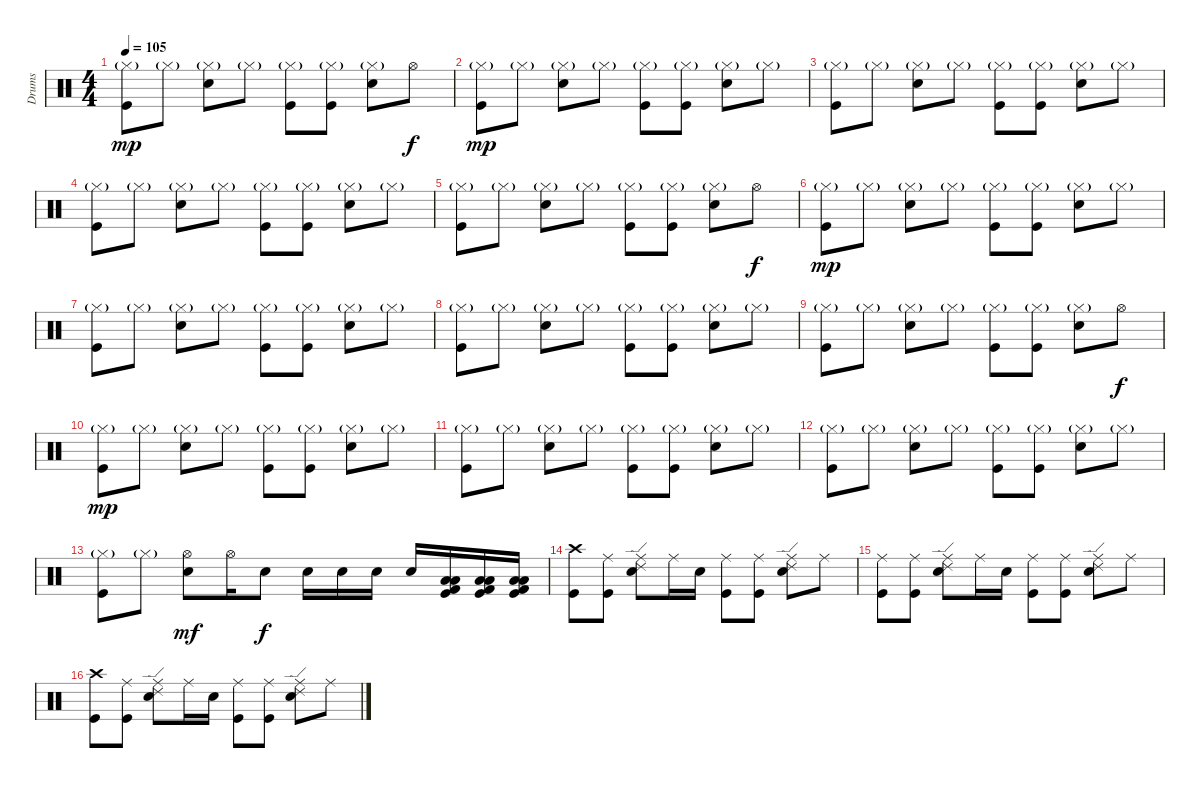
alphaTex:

\track ("Drums" "Drums") {instrument percussion}
\staff {score}
\articulation defaults
\ts (4 4)
\tempo 105
\clef neutral
\ks c
("Hi-Hat (closed)"{g} "Kick (hit)").8{dy mp} "Hi-Hat (closed)"{g}.8 ("Hi-Hat (closed)"{g} "Snare (hit) 2").8 "Hi-Hat (closed)"{g}.8 ("Hi-Hat (closed)"{g} "Kick (hit)").8 ("Hi-Hat (closed)"{g} "Kick (hit)").8 ("Hi-Hat (closed)"{g} "Snare (hit) 2").8 "Hi-Hat (open)".8{dy f} |
("Hi-Hat (closed)"{g} "Kick (hit)").8{dy mp} "Hi-Hat (closed)"{g}.8 ("Hi-Hat (closed)"{g} "Snare (hit) 2").8 "Hi-Hat (closed)"{g}.8 ("Hi-Hat (closed)"{g} "Kick (hit)").8 ("Hi-Hat (closed)"{g} "Kick (hit)").8 ("Hi-Hat (closed)"{g} "Snare (hit) 2").8 "Hi-Hat (closed)"{g}.8 |
("Hi-Hat (closed)"{g} "Kick (hit)").8 "Hi-Hat (closed)"{g}.8 ("Hi-Hat (closed)"{g} "Snare (hit) 2").8 "Hi-Hat (closed)"{g}.8 ("Hi-Hat (closed)"{g} "Kick (hit)").8 ("Hi-Hat (closed)"{g} "Kick (hit)").8 ("Hi-Hat (closed)"{g} "Snare (hit) 2").8 "Hi-Hat (closed)"{g}.8 |
("Hi-Hat (closed)"{g} "Kick (hit)").8 "Hi-Hat (closed)"{g}.8 ("Hi-Hat (closed)"{g} "Snare (hit) 2").8 "Hi-Hat (closed)"{g}.8 ("Hi-Hat (closed)"{g} "Kick (hit)").8 ("Hi-Hat (closed)"{g} "Kick (hit)").8 ("Hi-Hat (closed)"{g} "Snare (hit) 2").8 "Hi-Hat (closed)"{g}.8 |
("Hi-Hat (closed)"{g} "Kick (hit)").8 "Hi-Hat (closed)"{g}.8 ("Hi-Hat (closed)"{g} "Snare (hit) 2").8 "Hi-Hat (closed)"{g}.8 ("Hi-Hat (closed)"{g} "Kick (hit)").8 ("Hi-Hat (closed)"{g} "Kick (hit)").8 ("Hi-Hat (closed)"{g} "Snare (hit) 2").8 "Hi-Hat (open)".8{dy f} |
("Hi-Hat (closed)"{g} "Kick (hit)").8{dy mp} "Hi-Hat (closed)"{g}.8 ("Hi-Hat (closed)"{g} "Snare (hit) 2").8 "Hi-Hat (closed)"{g}.8 ("Hi-Hat (closed)"{g} "Kick (hit)").8 ("Hi-Hat (closed)"{g} "Kick (hit)").8 ("Hi-Hat (closed)"{g} "Snare (hit) 2").8 "Hi-Hat (closed)"{g}.8 |
("Hi-Hat (closed)"{g} "Kick (hit)").8 "Hi-Hat (closed)"{g}.8 ("Hi-Hat (closed)"{g} "Snare (hit) 2").8 "Hi-Hat (closed)"{g}.8 ("Hi-Hat (closed)"{g} "Kick (hit)").8 ("Hi-Hat (closed)"{g} "Kick (hit)").8 ("Hi-Hat (closed)"{g} "Snare (hit) 2").8 "Hi-Hat (closed)"{g}.8 |
("Hi-Hat (closed)"{g} "Kick (hit)").8 "Hi-Hat (closed)"{g}.8 ("Hi-Hat (closed)"{g} "Snare (hit) 2").8 "Hi-Hat (closed)"{g}.8 ("Hi-Hat (closed)"{g} "Kick (hit)").8 ("Hi-Hat (closed)"{g} "Kick (hit)").8 ("Hi-Hat (closed)"{g} "Snare (hit) 2").8 "Hi-Hat (closed)"{g}.8 |
("Hi-Hat (closed)"{g} "Kick (hit)").8 "Hi-Hat (closed)"{g}.8 ("Hi-Hat (closed)"{g} "Snare (hit) 2").8 "Hi-Hat (closed)"{g}.8 ("Hi-Hat (closed)"{g} "Kick (hit)").8 ("Hi-Hat (closed)"{g} "Kick (hit)").8 ("Hi-Hat (closed)"{g} "Snare (hit) 2").8 "Hi-Hat (open)".8{dy f} |
("Hi-Hat (closed)"{g} "Kick (hit)").8{dy mp} "Hi-Hat (closed)"{g}.8 ("Hi-Hat (closed)"{g} "Snare (hit) 2").8 "Hi-Hat (closed)"{g}.8 ("Hi-Hat (closed)"{g} "Kick (hit)").8 ("Hi-Hat (closed)"{g} "Kick (hit)").8 ("Hi-Hat (closed)"{g} "Snare (hit) 2").8 "Hi-Hat (closed)"{g}.8 |
("Hi-Hat (closed)"{g} "Kick (hit)").8 "Hi-Hat (closed)"{g}.8 ("Hi-Hat (closed)"{g} "Snare (hit) 2").8 "Hi-Hat (closed)"{g}.8 ("Hi-Hat (closed)"{g} "Kick (hit)").8 ("Hi-Hat (closed)"{g} "Kick (hit)").8 ("Hi-Hat (closed)"{g} "Snare (hit) 2").8 "Hi-Hat (closed)"{g}.8 |
("Hi-Hat (closed)"{g} "Kick (hit)").8 "Hi-Hat (closed)"{g}.8 ("Hi-Hat (closed)"{g} "Snare (hit) 2").8 "Hi-Hat (closed)"{g}.8 ("Hi-Hat (closed)"{g} "Kick (hit)").8 ("Hi-Hat (closed)"{g} "Kick (hit)").8 ("Hi-Hat (closed)"{g} "Snare (hit) 2").8 "Hi-Hat (closed)"{g}.8 |
("Hi-Hat (closed)"{g} "Kick (hit)").8 "Hi-Hat (closed)"{g}.8 ("Hi-Hat (open)" "Snare (hit) 2").8{dy mf} "Hi-Hat (open)".16 "Snare (hit) 2".8{dy f} "Snare (hit) 2".16 "Snare (hit) 2".16 "Snare (hit) 2".16 "Snare (hit) 2".16 ("Low Tom (hit)" "Low Floor Tom (hit)" "Kick (hit)" "Kick (hit) 2").16 ("Low Tom (hit)" "Low Floor Tom (hit)" "Kick (hit)" "Kick (hit) 2").16 ("Low Tom (hit)" "Low Floor Tom (hit)" "Kick (hit)" "Kick (hit) 2").16 |
("Crash high (hit)" "Kick (hit)").8 ("Ride (middle)" "Kick (hit)").8 ("Ride (middle)" "Ride (edge) 2" "Snare (hit) 2").8 "Ride (middle)".16 "Snare (hit) 2".16 ("Ride (middle)" "Kick (hit)").8 ("Ride (middle)" "Kick (hit)").8 ("Ride (middle)" "Ride (edge) 2" "Snare (hit) 2").8 "Ride (middle)".8 |
("Ride (middle)" "Kick (hit)").8 ("Ride (middle)" "Kick (hit)").8 ("Ride (middle)" "Ride (edge) 2" "Snare (hit) 2").8 "Ride (middle)".16 "Snare (hit) 2".16 ("Ride (middle)" "Kick (hit)").8 ("Ride (middle)" "Kick (hit)").8 ("Ride (middle)" "Ride (edge) 2" "Snare (hit) 2").8 "Ride (middle)".8 |
("Crash high (hit)" "Kick (hit)").8 ("Ride (middle)" "Kick (hit)").8 ("Ride (middle)" "Ride (edge) 2" "Snare (hit) 2").8 "Ride (middle)".16 "Snare (hit) 2".16 ("Ride (middle)" "Kick (hit)").8 ("Ride (middle)" "Kick (hit)").8 ("Ride (middle)" "Ride (edge) 2" "Snare (hit) 2").8 "Ride (middle)".8
